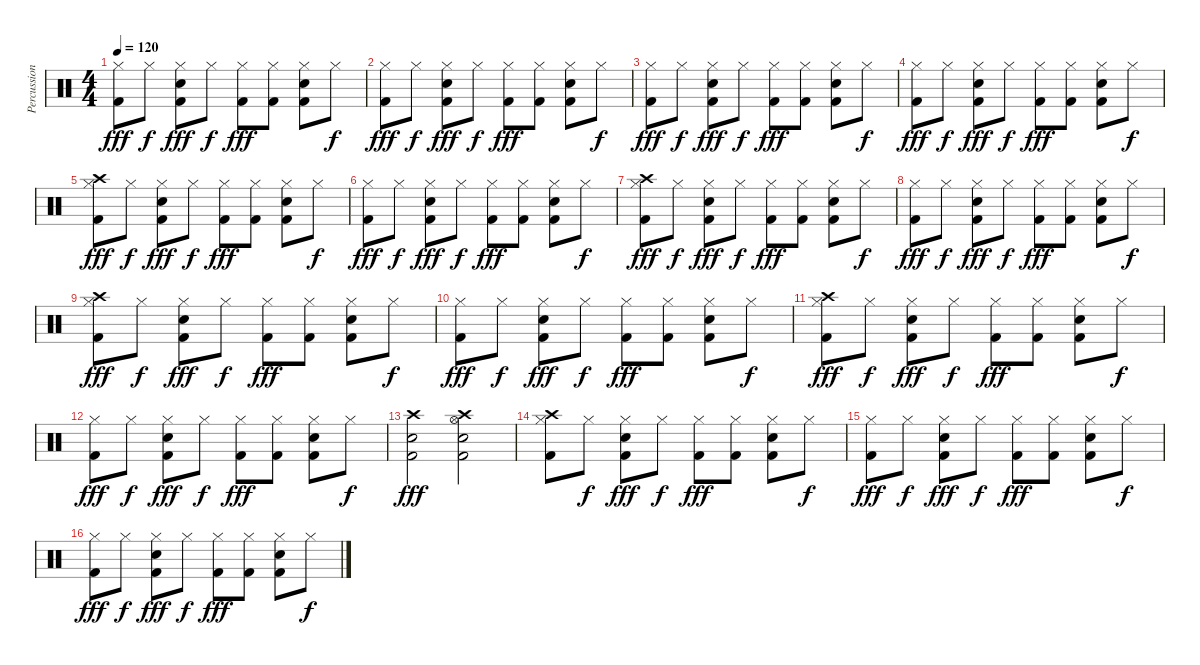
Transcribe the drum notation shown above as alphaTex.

\track ("Percussion: Steve Walchoz" "Percussion") {instrument percussion}
\staff {score}
\articulation defaults
\ts (4 4)
\tempo 120
\clef neutral
\ks c
("Hi-Hat (closed)" "Kick (hit) 2").8{dy fff} "Hi-Hat (closed)".8{dy f} ("Hi-Hat (closed)" "Snare (hit) 2" "Kick (hit) 2").8{dy fff} "Hi-Hat (closed)".8{dy f} ("Hi-Hat (closed)" "Kick (hit) 2").8{dy fff} ("Hi-Hat (closed)" "Kick (hit) 2").8 ("Hi-Hat (closed)" "Snare (hit) 2" "Kick (hit) 2").8 "Hi-Hat (closed)".8{dy f} |
("Hi-Hat (closed)" "Kick (hit) 2").8{dy fff} "Hi-Hat (closed)".8{dy f} ("Hi-Hat (closed)" "Snare (hit) 2" "Kick (hit) 2").8{dy fff} "Hi-Hat (closed)".8{dy f} ("Hi-Hat (closed)" "Kick (hit) 2").8{dy fff} ("Hi-Hat (closed)" "Kick (hit) 2").8 ("Hi-Hat (closed)" "Snare (hit) 2" "Kick (hit) 2").8 "Hi-Hat (closed)".8{dy f} |
("Hi-Hat (closed)" "Kick (hit) 2").8{dy fff} "Hi-Hat (closed)".8{dy f} ("Hi-Hat (closed)" "Snare (hit) 2" "Kick (hit) 2").8{dy fff} "Hi-Hat (closed)".8{dy f} ("Hi-Hat (closed)" "Kick (hit) 2").8{dy fff} ("Hi-Hat (closed)" "Kick (hit) 2").8 ("Hi-Hat (closed)" "Snare (hit) 2" "Kick (hit) 2").8 "Hi-Hat (closed)".8{dy f} |
("Hi-Hat (closed)" "Kick (hit) 2").8{dy fff} "Hi-Hat (closed)".8{dy f} ("Hi-Hat (closed)" "Snare (hit) 2" "Kick (hit) 2").8{dy fff} "Hi-Hat (closed)".8{dy f} ("Hi-Hat (closed)" "Kick (hit) 2").8{dy fff} ("Hi-Hat (closed)" "Kick (hit) 2").8 ("Hi-Hat (closed)" "Snare (hit) 2" "Kick (hit) 2").8 "Hi-Hat (closed)".8{dy f} |
("Crash high (hit)" "Hi-Hat (closed)" "Kick (hit) 2").8{dy fff} "Hi-Hat (closed)".8{dy f} ("Hi-Hat (closed)" "Snare (hit) 2" "Kick (hit) 2").8{dy fff} "Hi-Hat (closed)".8{dy f} ("Hi-Hat (closed)" "Kick (hit) 2").8{dy fff} ("Hi-Hat (closed)" "Kick (hit) 2").8 ("Hi-Hat (closed)" "Snare (hit) 2" "Kick (hit) 2").8 "Hi-Hat (closed)".8{dy f} |
("Hi-Hat (closed)" "Kick (hit) 2").8{dy fff} "Hi-Hat (closed)".8{dy f} ("Hi-Hat (closed)" "Snare (hit) 2" "Kick (hit) 2").8{dy fff} "Hi-Hat (closed)".8{dy f} ("Hi-Hat (closed)" "Kick (hit) 2").8{dy fff} ("Hi-Hat (closed)" "Kick (hit) 2").8 ("Hi-Hat (closed)" "Snare (hit) 2" "Kick (hit) 2").8 "Hi-Hat (closed)".8{dy f} |
("Crash high (hit)" "Hi-Hat (closed)" "Kick (hit) 2").8{dy fff} "Hi-Hat (closed)".8{dy f} ("Hi-Hat (closed)" "Snare (hit) 2" "Kick (hit) 2").8{dy fff} "Hi-Hat (closed)".8{dy f} ("Hi-Hat (closed)" "Kick (hit) 2").8{dy fff} ("Hi-Hat (closed)" "Kick (hit) 2").8 ("Hi-Hat (closed)" "Snare (hit) 2" "Kick (hit) 2").8 "Hi-Hat (closed)".8{dy f} |
("Hi-Hat (closed)" "Kick (hit) 2").8{dy fff} "Hi-Hat (closed)".8{dy f} ("Hi-Hat (closed)" "Snare (hit) 2" "Kick (hit) 2").8{dy fff} "Hi-Hat (closed)".8{dy f} ("Hi-Hat (closed)" "Kick (hit) 2").8{dy fff} ("Hi-Hat (closed)" "Kick (hit) 2").8 ("Hi-Hat (closed)" "Snare (hit) 2" "Kick (hit) 2").8 "Hi-Hat (closed)".8{dy f} |
("Crash high (hit)" "Hi-Hat (closed)" "Kick (hit) 2").8{dy fff} "Hi-Hat (closed)".8{dy f} ("Hi-Hat (closed)" "Snare (hit) 2" "Kick (hit) 2").8{dy fff} "Hi-Hat (closed)".8{dy f} ("Hi-Hat (closed)" "Kick (hit) 2").8{dy fff} ("Hi-Hat (closed)" "Kick (hit) 2").8 ("Hi-Hat (closed)" "Snare (hit) 2" "Kick (hit) 2").8 "Hi-Hat (closed)".8{dy f} |
("Hi-Hat (closed)" "Kick (hit) 2").8{dy fff} "Hi-Hat (closed)".8{dy f} ("Hi-Hat (closed)" "Snare (hit) 2" "Kick (hit) 2").8{dy fff} "Hi-Hat (closed)".8{dy f} ("Hi-Hat (closed)" "Kick (hit) 2").8{dy fff} ("Hi-Hat (closed)" "Kick (hit) 2").8 ("Hi-Hat (closed)" "Snare (hit) 2" "Kick (hit) 2").8 "Hi-Hat (closed)".8{dy f} |
("Crash high (hit)" "Hi-Hat (closed)" "Kick (hit) 2").8{dy fff} "Hi-Hat (closed)".8{dy f} ("Hi-Hat (closed)" "Snare (hit) 2" "Kick (hit) 2").8{dy fff} "Hi-Hat (closed)".8{dy f} ("Hi-Hat (closed)" "Kick (hit) 2").8{dy fff} ("Hi-Hat (closed)" "Kick (hit) 2").8 ("Hi-Hat (closed)" "Snare (hit) 2" "Kick (hit) 2").8 "Hi-Hat (closed)".8{dy f} |
("Hi-Hat (closed)" "Kick (hit) 2").8{dy fff} "Hi-Hat (closed)".8{dy f} ("Hi-Hat (closed)" "Snare (hit) 2" "Kick (hit) 2").8{dy fff} "Hi-Hat (closed)".8{dy f} ("Hi-Hat (closed)" "Kick (hit) 2").8{dy fff} ("Hi-Hat (closed)" "Kick (hit) 2").8 ("Hi-Hat (closed)" "Snare (hit) 2" "Kick (hit) 2").8 "Hi-Hat (closed)".8{dy f} |
("Crash high (hit)" "Snare (hit) 2" "Kick (hit) 2").2{dy fff} ("Crash high (hit)" "Hi-Hat (open)" "Snare (hit) 2" "Kick (hit) 2").2 |
("Crash high (hit)" "Hi-Hat (closed)" "Kick (hit) 2").8 "Hi-Hat (closed)".8{dy f} ("Hi-Hat (closed)" "Snare (hit) 2" "Kick (hit) 2").8{dy fff} "Hi-Hat (closed)".8{dy f} ("Hi-Hat (closed)" "Kick (hit) 2").8{dy fff} ("Hi-Hat (closed)" "Kick (hit) 2").8 ("Hi-Hat (closed)" "Snare (hit) 2" "Kick (hit) 2").8 "Hi-Hat (closed)".8{dy f} |
("Hi-Hat (closed)" "Kick (hit) 2").8{dy fff} "Hi-Hat (closed)".8{dy f} ("Hi-Hat (closed)" "Snare (hit) 2" "Kick (hit) 2").8{dy fff} "Hi-Hat (closed)".8{dy f} ("Hi-Hat (closed)" "Kick (hit) 2").8{dy fff} ("Hi-Hat (closed)" "Kick (hit) 2").8 ("Hi-Hat (closed)" "Snare (hit) 2" "Kick (hit) 2").8 "Hi-Hat (closed)".8{dy f} |
("Hi-Hat (closed)" "Kick (hit) 2").8{dy fff} "Hi-Hat (closed)".8{dy f} ("Hi-Hat (closed)" "Snare (hit) 2" "Kick (hit) 2").8{dy fff} "Hi-Hat (closed)".8{dy f} ("Hi-Hat (closed)" "Kick (hit) 2").8{dy fff} ("Hi-Hat (closed)" "Kick (hit) 2").8 ("Hi-Hat (closed)" "Snare (hit) 2" "Kick (hit) 2").8 "Hi-Hat (closed)".8{dy f}
